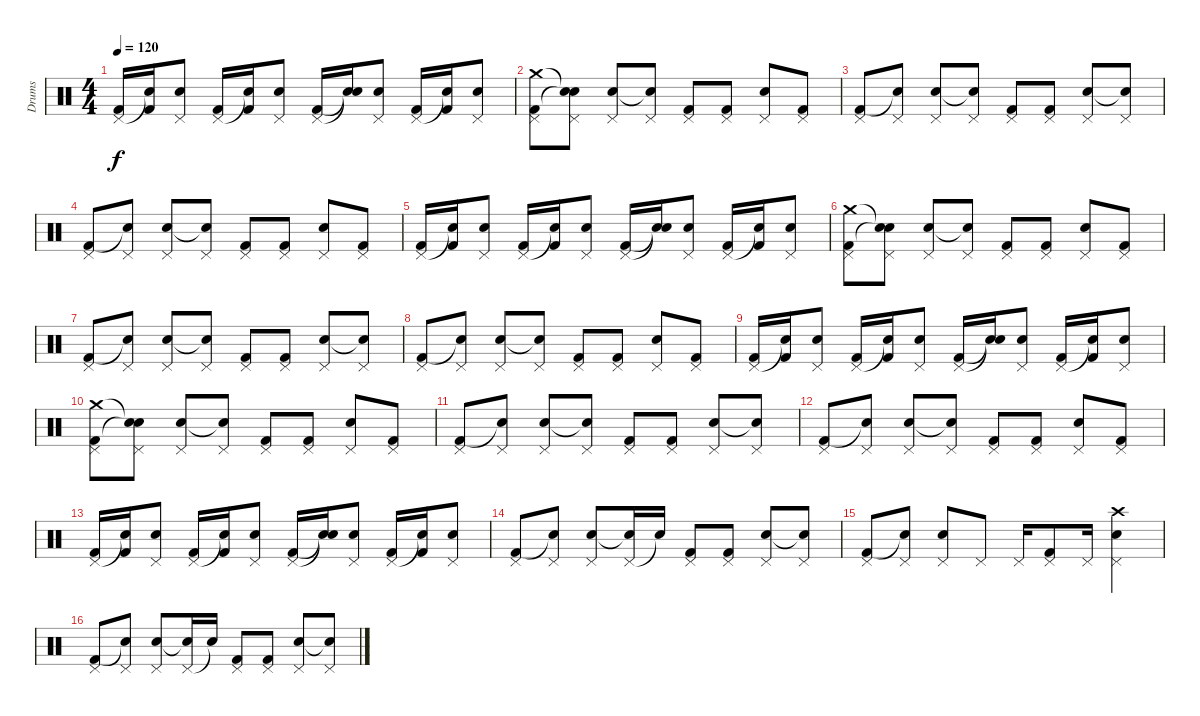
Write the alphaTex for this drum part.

\track ("Drums" "Drums") {instrument percussion}
\staff {score}
\articulation defaults
\ts (4 4)
\tempo 120
\clef neutral
\ks c
("Pedal Hi-Hat (hit)" "Kick (hit) 2").16{dy f} ("Snare (hit)"{t} "Kick (hit) 2").16 ("Pedal Hi-Hat (hit)" "Snare (hit) 2").8 ("Pedal Hi-Hat (hit)" "Kick (hit) 2").16 ("Snare (hit)"{t} "Kick (hit) 2").16 ("Pedal Hi-Hat (hit)" "Snare (hit) 2").8 ("Pedal Hi-Hat (hit)" "Kick (hit) 2").16 ("Snare (hit)"{t} "Snare (hit)"{t}).16 ("Pedal Hi-Hat (hit)" "Snare (hit) 2").8 ("Pedal Hi-Hat (hit)" "Kick (hit) 2").16 ("Snare (hit)"{t} "Kick (hit) 2").16 ("Pedal Hi-Hat (hit)" "Snare (hit) 2").8 |
("Pedal Hi-Hat (hit)" "Crash medium (hit)" "Kick (hit) 2").8 ("Pedal Hi-Hat (hit)" "Snare (hit)"{t} "Snare (hit)"{t}).8 ("Pedal Hi-Hat (hit)" "Snare (hit) 2").8 ("Pedal Hi-Hat (hit)" "Snare (hit)"{t}).8 ("Pedal Hi-Hat (hit)" "Kick (hit) 2").8 ("Pedal Hi-Hat (hit)" "Kick (hit) 2").8 ("Pedal Hi-Hat (hit)" "Snare (hit) 2").8 ("Pedal Hi-Hat (hit)" "Kick (hit) 2").8 |
("Pedal Hi-Hat (hit)" "Kick (hit) 2").8 ("Pedal Hi-Hat (hit)" "Snare (hit)"{t}).8 ("Pedal Hi-Hat (hit)" "Snare (hit) 2").8 ("Pedal Hi-Hat (hit)" "Snare (hit)"{t}).8 ("Pedal Hi-Hat (hit)" "Kick (hit) 2").8 ("Pedal Hi-Hat (hit)" "Kick (hit) 2").8 ("Pedal Hi-Hat (hit)" "Snare (hit) 2").8 ("Pedal Hi-Hat (hit)" "Snare (hit)"{t}).8 |
("Pedal Hi-Hat (hit)" "Kick (hit) 2").8 ("Pedal Hi-Hat (hit)" "Snare (hit)"{t}).8 ("Pedal Hi-Hat (hit)" "Snare (hit) 2").8 ("Pedal Hi-Hat (hit)" "Snare (hit)"{t}).8 ("Pedal Hi-Hat (hit)" "Kick (hit) 2").8 ("Pedal Hi-Hat (hit)" "Kick (hit) 2").8 ("Pedal Hi-Hat (hit)" "Snare (hit) 2").8 ("Pedal Hi-Hat (hit)" "Kick (hit) 2").8 |
("Pedal Hi-Hat (hit)" "Kick (hit) 2").16 ("Snare (hit)"{t} "Kick (hit) 2").16 ("Pedal Hi-Hat (hit)" "Snare (hit) 2").8 ("Pedal Hi-Hat (hit)" "Kick (hit) 2").16 ("Snare (hit)"{t} "Kick (hit) 2").16 ("Pedal Hi-Hat (hit)" "Snare (hit) 2").8 ("Pedal Hi-Hat (hit)" "Kick (hit) 2").16 ("Snare (hit)"{t} "Snare (hit)"{t}).16 ("Pedal Hi-Hat (hit)" "Snare (hit) 2").8 ("Pedal Hi-Hat (hit)" "Kick (hit) 2").16 ("Snare (hit)"{t} "Kick (hit) 2").16 ("Pedal Hi-Hat (hit)" "Snare (hit) 2").8 |
("Pedal Hi-Hat (hit)" "Crash medium (hit)" "Kick (hit) 2").8 ("Pedal Hi-Hat (hit)" "Snare (hit)"{t} "Snare (hit)"{t}).8 ("Pedal Hi-Hat (hit)" "Snare (hit) 2").8 ("Pedal Hi-Hat (hit)" "Snare (hit)"{t}).8 ("Pedal Hi-Hat (hit)" "Kick (hit) 2").8 ("Pedal Hi-Hat (hit)" "Kick (hit) 2").8 ("Pedal Hi-Hat (hit)" "Snare (hit) 2").8 ("Pedal Hi-Hat (hit)" "Kick (hit) 2").8 |
("Pedal Hi-Hat (hit)" "Kick (hit) 2").8 ("Pedal Hi-Hat (hit)" "Snare (hit)"{t}).8 ("Pedal Hi-Hat (hit)" "Snare (hit) 2").8 ("Pedal Hi-Hat (hit)" "Snare (hit)"{t}).8 ("Pedal Hi-Hat (hit)" "Kick (hit) 2").8 ("Pedal Hi-Hat (hit)" "Kick (hit) 2").8 ("Pedal Hi-Hat (hit)" "Snare (hit) 2").8 ("Pedal Hi-Hat (hit)" "Snare (hit)"{t}).8 |
("Pedal Hi-Hat (hit)" "Kick (hit) 2").8 ("Pedal Hi-Hat (hit)" "Snare (hit)"{t}).8 ("Pedal Hi-Hat (hit)" "Snare (hit) 2").8 ("Pedal Hi-Hat (hit)" "Snare (hit)"{t}).8 ("Pedal Hi-Hat (hit)" "Kick (hit) 2").8 ("Pedal Hi-Hat (hit)" "Kick (hit) 2").8 ("Pedal Hi-Hat (hit)" "Snare (hit) 2").8 ("Pedal Hi-Hat (hit)" "Kick (hit) 2").8 |
("Pedal Hi-Hat (hit)" "Kick (hit) 2").16 ("Snare (hit)"{t} "Kick (hit) 2").16 ("Pedal Hi-Hat (hit)" "Snare (hit) 2").8 ("Pedal Hi-Hat (hit)" "Kick (hit) 2").16 ("Snare (hit)"{t} "Kick (hit) 2").16 ("Pedal Hi-Hat (hit)" "Snare (hit) 2").8 ("Pedal Hi-Hat (hit)" "Kick (hit) 2").16 ("Snare (hit)"{t} "Snare (hit)"{t}).16 ("Pedal Hi-Hat (hit)" "Snare (hit) 2").8 ("Pedal Hi-Hat (hit)" "Kick (hit) 2").16 ("Snare (hit)"{t} "Kick (hit) 2").16 ("Pedal Hi-Hat (hit)" "Snare (hit) 2").8 |
("Pedal Hi-Hat (hit)" "Crash medium (hit)" "Kick (hit) 2").8 ("Pedal Hi-Hat (hit)" "Snare (hit)"{t} "Snare (hit)"{t}).8 ("Pedal Hi-Hat (hit)" "Snare (hit) 2").8 ("Pedal Hi-Hat (hit)" "Snare (hit)"{t}).8 ("Pedal Hi-Hat (hit)" "Kick (hit) 2").8 ("Pedal Hi-Hat (hit)" "Kick (hit) 2").8 ("Pedal Hi-Hat (hit)" "Snare (hit) 2").8 ("Pedal Hi-Hat (hit)" "Kick (hit) 2").8 |
("Pedal Hi-Hat (hit)" "Kick (hit) 2").8 ("Pedal Hi-Hat (hit)" "Snare (hit)"{t}).8 ("Pedal Hi-Hat (hit)" "Snare (hit) 2").8 ("Pedal Hi-Hat (hit)" "Snare (hit)"{t}).8 ("Pedal Hi-Hat (hit)" "Kick (hit) 2").8 ("Pedal Hi-Hat (hit)" "Kick (hit) 2").8 ("Pedal Hi-Hat (hit)" "Snare (hit) 2").8 ("Pedal Hi-Hat (hit)" "Snare (hit)"{t}).8 |
("Pedal Hi-Hat (hit)" "Kick (hit) 2").8 ("Pedal Hi-Hat (hit)" "Snare (hit)"{t}).8 ("Pedal Hi-Hat (hit)" "Snare (hit) 2").8 ("Pedal Hi-Hat (hit)" "Snare (hit)"{t}).8 ("Pedal Hi-Hat (hit)" "Kick (hit) 2").8 ("Pedal Hi-Hat (hit)" "Kick (hit) 2").8 ("Pedal Hi-Hat (hit)" "Snare (hit) 2").8 ("Pedal Hi-Hat (hit)" "Kick (hit) 2").8 |
("Pedal Hi-Hat (hit)" "Kick (hit) 2").16 ("Snare (hit)"{t} "Kick (hit) 2").16 ("Pedal Hi-Hat (hit)" "Snare (hit) 2").8 ("Pedal Hi-Hat (hit)" "Kick (hit) 2").16 ("Snare (hit)"{t} "Kick (hit) 2").16 ("Pedal Hi-Hat (hit)" "Snare (hit) 2").8 ("Pedal Hi-Hat (hit)" "Kick (hit) 2").16 ("Snare (hit)"{t} "Snare (hit)"{t}).16 ("Pedal Hi-Hat (hit)" "Snare (hit) 2").8 ("Pedal Hi-Hat (hit)" "Kick (hit) 2").16 ("Snare (hit)"{t} "Kick (hit) 2").16 ("Pedal Hi-Hat (hit)" "Snare (hit) 2").8 |
("Pedal Hi-Hat (hit)" "Kick (hit) 2").8 ("Pedal Hi-Hat (hit)" "Snare (hit)"{t}).8 ("Pedal Hi-Hat (hit)" "Snare (hit) 2").8 ("Pedal Hi-Hat (hit)" "Snare (hit)"{t}).16 "Snare (hit)"{t}.16 ("Pedal Hi-Hat (hit)" "Kick (hit) 2").8 ("Pedal Hi-Hat (hit)" "Kick (hit) 2").8 ("Pedal Hi-Hat (hit)" "Snare (hit) 2").8 ("Pedal Hi-Hat (hit)" "Snare (hit)"{t}).8 |
("Pedal Hi-Hat (hit)" "Kick (hit) 2").8 ("Pedal Hi-Hat (hit)" "Snare (hit)"{t}).8 ("Pedal Hi-Hat (hit)" "Snare (hit) 2").8 "Pedal Hi-Hat (hit)".8 "Pedal Hi-Hat (hit)".16 ("Pedal Hi-Hat (hit)" "Kick (hit) 2").8 "Pedal Hi-Hat (hit)".16 ("Pedal Hi-Hat (hit)" "Crash high (hit)" "Snare (hit) 2").4 |
("Pedal Hi-Hat (hit)" "Kick (hit) 2").8 ("Pedal Hi-Hat (hit)" "Snare (hit)"{t}).8 ("Pedal Hi-Hat (hit)" "Snare (hit) 2").8 ("Pedal Hi-Hat (hit)" "Snare (hit)"{t}).16 "Snare (hit)"{t}.16 ("Pedal Hi-Hat (hit)" "Kick (hit) 2").8 ("Pedal Hi-Hat (hit)" "Kick (hit) 2").8 ("Pedal Hi-Hat (hit)" "Snare (hit) 2").8 ("Pedal Hi-Hat (hit)" "Snare (hit)"{t}).8
